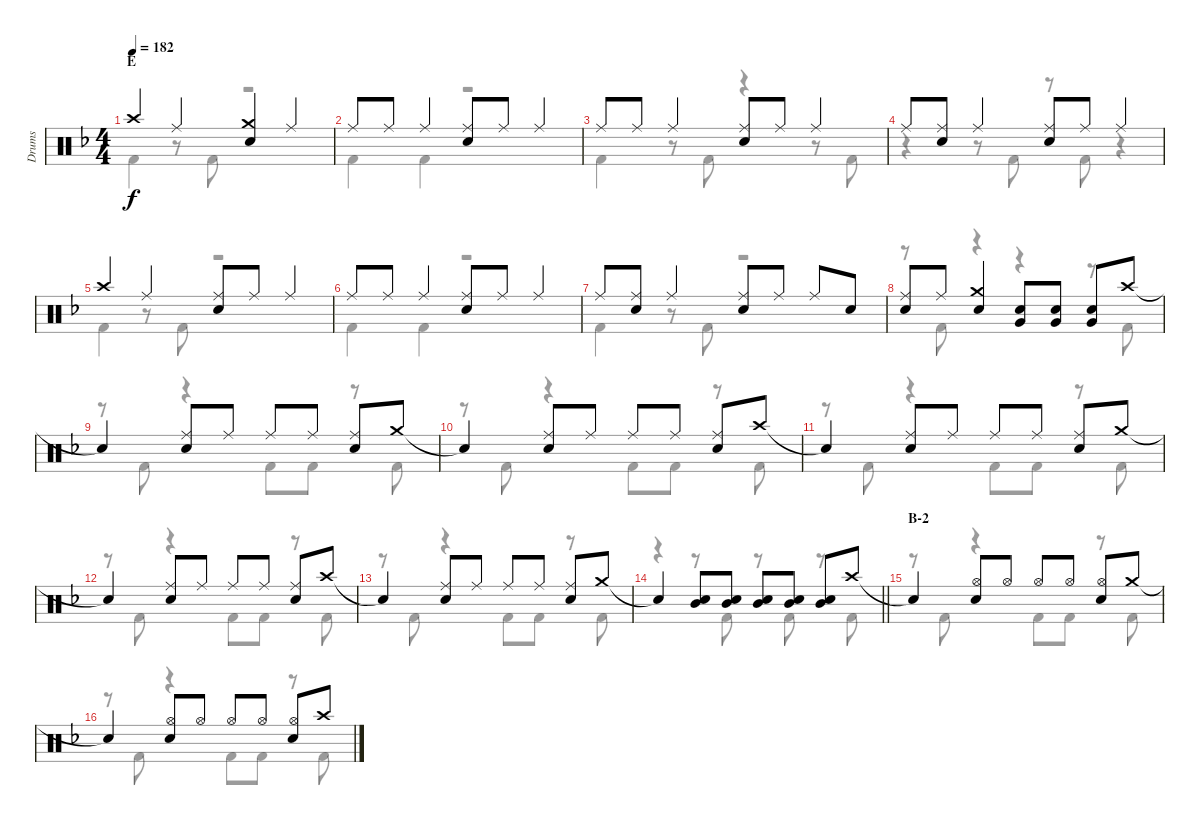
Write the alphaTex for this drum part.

\track ("Drums" "Drums") {instrument percussion}
\staff {score}
\articulation defaults
\voice
\ts (4 4)
\section ("" "E")
\tempo 182
\clef neutral
\ks f "Crash high (hit)".4{dy f} "Ride (middle)".4
("Crash medium (hit)" "Snare (hit) 2").4 "Ride (middle)".4 |
"Ride (middle)".8 "Ride (middle)".8 "Ride (middle)".4 ("Ride (middle)" "Snare (hit) 2").8 "Ride (middle)".8 "Ride (middle)".4 |
"Ride (middle)".8 "Ride (middle)".8 "Ride (middle)".4 ("Ride (middle)" "Snare (hit) 2").8 "Ride (middle)".8 "Ride (middle)".4 |
"Ride (middle)".8 ("Ride (middle)" "Snare (hit) 2").8 "Ride (middle)".4 ("Ride (middle)" "Snare (hit) 2").8 "Ride (middle)".8 "Ride (middle)".4 |
"Crash high (hit)".4 "Ride (middle)".4 ("Ride (middle)" "Snare (hit) 2").8 "Ride (middle)".8 "Ride (middle)".4 |
"Ride (middle)".8 "Ride (middle)".8 "Ride (middle)".4 ("Ride (middle)" "Snare (hit) 2").8 "Ride (middle)".8 "Ride (middle)".4 |
"Ride (middle)".8 ("Ride (middle)" "Snare (hit) 2").8 "Ride (middle)".4 ("Ride (middle)" "Snare (hit) 2").8 "Ride (middle)".8 "Ride (middle)".8 "Snare (hit) 2".8 |
("Ride (middle)" "Snare (hit) 2").8 "Ride (middle)".8 ("Crash medium (hit)" "Snare (hit) 2").4 ("Snare (hit) 2" "Very Low Tom (hit)").8 ("Snare (hit) 2" "Very Low Tom (hit)").8 ("Snare (hit) 2" "Very Low Tom (hit)").8 "Crash high (hit)".8 |
"Snare (hit)"{t}.4 ("Ride (middle)" "Snare (hit) 2").8 "Ride (middle)".8 "Ride (middle)".8 "Ride (middle)".8 ("Ride (middle)" "Snare (hit) 2").8 "Crash medium (hit)".8 |
"Snare (hit)"{t}.4 ("Ride (middle)" "Snare (hit) 2").8 "Ride (middle)".8 "Ride (middle)".8 "Ride (middle)".8 ("Ride (middle)" "Snare (hit) 2").8 "Crash high (hit)".8 |
"Snare (hit)"{t}.4 ("Ride (middle)" "Snare (hit) 2").8 "Ride (middle)".8 "Ride (middle)".8 "Ride (middle)".8 ("Ride (middle)" "Snare (hit) 2").8 "Crash medium (hit)".8 |
"Snare (hit)"{t}.4 ("Ride (middle)" "Snare (hit) 2").8 "Ride (middle)".8 "Ride (middle)".8 "Ride (middle)".8 ("Ride (middle)" "Snare (hit) 2").8 "Crash high (hit)".8 |
"Snare (hit)"{t}.4 ("Ride (middle)" "Snare (hit) 2").8 "Ride (middle)".8 "Ride (middle)".8 "Ride (middle)".8 ("Ride (middle)" "Snare (hit) 2").8 "Crash medium (hit)".8 |
\barLineRight lightlight "Snare (hit)"{t}.4
("Mid Tom (hit)" "Snare (hit) 2").8 ("Mid Tom (hit)" "Snare (hit) 2").8 ("Mid Tom (hit)" "Snare (hit) 2").8 ("Mid Tom (hit)" "Snare (hit) 2").8 ("Mid Tom (hit)" "Snare (hit) 2").8 "Crash high (hit)".8 |
\section ("" "B-2")
"Snare (hit)"{t}.4 ("Hi-Hat (open)" "Snare (hit) 2").8 "Hi-Hat (open)".8 "Hi-Hat (open)".8 "Hi-Hat (open)".8 ("Hi-Hat (open)" "Snare (hit) 2").8 "Crash medium (hit)".8 |
"Snare (hit)"{t}.4 ("Hi-Hat (open)" "Snare (hit) 2").8 "Hi-Hat (open)".8 "Hi-Hat (open)".8 "Hi-Hat (open)".8 ("Hi-Hat (open)" "Snare (hit) 2").8 "Crash high (hit)".8
\voice
\clef neutral
\ottava regular
\simile none
\ks f "Kick (hit) 2".4{dy f}
r.8 "Kick (hit) 2".8 r.2 |
"Kick (hit) 2".4 "Kick (hit) 2".4 r.2 |
"Kick (hit) 2".4 r.8 "Kick (hit) 2".8 r.4 r.8 "Kick (hit) 2".8 |
r.4 r.8 "Kick (hit) 2".8 r.8 "Kick (hit) 2".8 r.4 |
"Kick (hit) 2".4 r.8 "Kick (hit) 2".8 r.2 |
"Kick (hit) 2".4 "Kick (hit) 2".4 r.2 |
"Kick (hit) 2".4 r.8 "Kick (hit) 2".8 r.2 |
r.8 "Kick (hit) 2".8 r.4 r.4 r.8 "Kick (hit) 2".8 |
r.8 "Kick (hit) 2".8 r.4 "Kick (hit) 2".8 "Kick (hit) 2".8 r.8 "Kick (hit) 2".8 |
r.8 "Kick (hit) 2".8 r.4 "Kick (hit) 2".8 "Kick (hit) 2".8 r.8 "Kick (hit) 2".8 |
r.8 "Kick (hit) 2".8 r.4 "Kick (hit) 2".8 "Kick (hit) 2".8 r.8 "Kick (hit) 2".8 |
r.8 "Kick (hit) 2".8 r.4 "Kick (hit) 2".8 "Kick (hit) 2".8 r.8 "Kick (hit) 2".8 |
r.8 "Kick (hit) 2".8 r.4 "Kick (hit) 2".8 "Kick (hit) 2".8 r.8 "Kick (hit) 2".8 |
\barLineRight lightlight
r.4 r.8 "Kick (hit) 2".8 r.8 "Kick (hit) 2".8 r.8 "Kick (hit) 2".8 |
r.8 "Kick (hit) 2".8 r.4 "Kick (hit) 2".8 "Kick (hit) 2".8 r.8 "Kick (hit) 2".8 |
r.8 "Kick (hit) 2".8 r.4 "Kick (hit) 2".8 "Kick (hit) 2".8 r.8 "Kick (hit) 2".8
